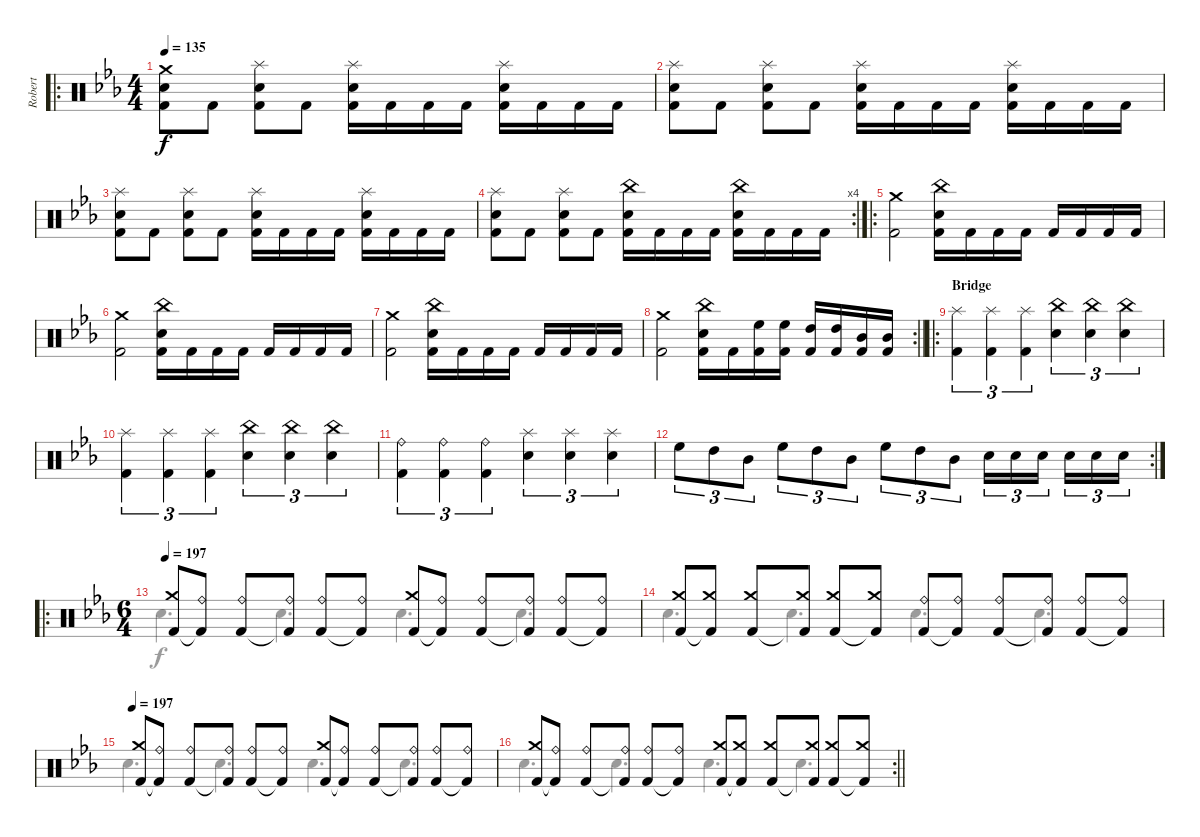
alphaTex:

\track ("Robert" "Robert") {instrument percussion}
\staff {score}
\articulation defaults
\voice
\ro
\ts (4 4)
\tempo 135
\clef neutral
\ks cminor
("Crash medium (hit)" "Snare (hit) 2" "Kick (hit) 2").8{dy f} "Kick (hit) 2".8 ("Splash (hit)" "Snare (hit) 2" "Kick (hit) 2").8 "Kick (hit) 2".8 ("Splash (hit)" "Snare (hit) 2" "Kick (hit) 2").16 "Kick (hit) 2".16 "Kick (hit) 2".16 "Kick (hit) 2".16 ("Splash (hit)" "Snare (hit) 2" "Kick (hit) 2").16 "Kick (hit) 2".16 "Kick (hit) 2".16 "Kick (hit) 2".16 |
("Splash (hit)" "Snare (hit) 2" "Kick (hit) 2").8 "Kick (hit) 2".8 ("Splash (hit)" "Snare (hit) 2" "Kick (hit) 2").8 "Kick (hit) 2".8 ("Splash (hit)" "Snare (hit) 2" "Kick (hit) 2").16 "Kick (hit) 2".16 "Kick (hit) 2".16 "Kick (hit) 2".16 ("Splash (hit)" "Snare (hit) 2" "Kick (hit) 2").16 "Kick (hit) 2".16 "Kick (hit) 2".16 "Kick (hit) 2".16 |
("Splash (hit)" "Snare (hit) 2" "Kick (hit) 2").8 "Kick (hit) 2".8 ("Splash (hit)" "Snare (hit) 2" "Kick (hit) 2").8 "Kick (hit) 2".8 ("Splash (hit)" "Snare (hit) 2" "Kick (hit) 2").16 "Kick (hit) 2".16 "Kick (hit) 2".16 "Kick (hit) 2".16 ("Splash (hit)" "Snare (hit) 2" "Kick (hit) 2").16 "Kick (hit) 2".16 "Kick (hit) 2".16 "Kick (hit) 2".16 |
\rc 4
("Splash (hit)" "Snare (hit) 2" "Kick (hit) 2").8 "Kick (hit) 2".8 ("Splash (hit)" "Snare (hit) 2" "Kick (hit) 2").8 "Kick (hit) 2".8 ("China (hit)" "Snare (hit) 2" "Kick (hit) 2").16 "Kick (hit) 2".16 "Kick (hit) 2".16 "Kick (hit) 2".16 ("China (hit)" "Snare (hit) 2" "Kick (hit) 2").16 "Kick (hit) 2".16 "Kick (hit) 2".16 "Kick (hit) 2".16 |
\ro
("Crash medium (hit)" "Kick (hit) 2").2 ("China (hit)" "Snare (hit) 2" "Kick (hit) 2").16 "Kick (hit) 2".16 "Kick (hit) 2".16 "Kick (hit) 2".16 "Kick (hit) 2".16 "Kick (hit) 2".16 "Kick (hit) 2".16 "Kick (hit) 2".16 |
("Crash medium (hit)" "Kick (hit) 2").2 ("China (hit)" "Snare (hit) 2" "Kick (hit) 2").16 "Kick (hit) 2".16 "Kick (hit) 2".16 "Kick (hit) 2".16 "Kick (hit) 2".16 "Kick (hit) 2".16 "Kick (hit) 2".16 "Kick (hit) 2".16 |
("Crash medium (hit)" "Kick (hit) 2").2 ("China (hit)" "Snare (hit) 2" "Kick (hit) 2").16 "Kick (hit) 2".16 "Kick (hit) 2".16 "Kick (hit) 2".16 "Kick (hit) 2".16 "Kick (hit) 2".16 "Kick (hit) 2".16 "Kick (hit) 2".16 |
\rc 2
\barLineRight lightlight
("Crash medium (hit)" "Kick (hit) 2").2 ("China (hit)" "Snare (hit) 2" "Kick (hit) 2").16 "Kick (hit) 2".16 ("High Floor Tom (hit)" "Kick (hit) 2").16 ("High Floor Tom (hit)" "Kick (hit) 2").16 ("High Tom (hit)" "Kick (hit) 2").16 ("High Tom (hit)" "Kick (hit) 2").16 ("Mid Tom (hit)" "Kick (hit) 2").16 ("Mid Tom (hit)" "Kick (hit) 2").16 |
\ro
\section ("" "Bridge")
("Splash (hit)" "Kick (hit) 2").4{tu (3 2)} ("Splash (hit)" "Kick (hit) 2").4{tu (3 2)} ("Splash (hit)" "Kick (hit) 2").4{tu (3 2)} ("China (hit)" "Snare (hit) 2").4{tu (3 2)} ("China (hit)" "Snare (hit) 2").4{tu (3 2)} ("China (hit)" "Snare (hit) 2").4{tu (3 2)} |
("Splash (hit)" "Kick (hit) 2").4{tu (3 2)} ("Splash (hit)" "Kick (hit) 2").4{tu (3 2)} ("Splash (hit)" "Kick (hit) 2").4{tu (3 2)} ("China (hit)" "Snare (hit) 2").4{tu (3 2)} ("China (hit)" "Snare (hit) 2").4{tu (3 2)} ("China (hit)" "Snare (hit) 2").4{tu (3 2)} |
("Ride (bell)" "Kick (hit) 2").4{tu (3 2)} ("Ride (bell)" "Kick (hit) 2").4{tu (3 2)} ("Ride (bell)" "Kick (hit) 2").4{tu (3 2)} ("Splash (hit)" "Snare (hit) 2").4{tu (3 2)} ("Splash (hit)" "Snare (hit) 2").4{tu (3 2)} ("Splash (hit)" "Snare (hit) 2").4{tu (3 2)} |
\rc 2 "High Floor Tom (hit)".8{tu (3 2)} "High Tom (hit)".8{tu (3 2)} "Mid Tom (hit)".8{tu (3 2)} "High Floor Tom (hit)".8{tu (3 2)} "High Tom (hit)".8{tu (3 2)} "Mid Tom (hit)".8{tu (3 2)} "High Floor Tom (hit)".8{tu (3 2)} "High Tom (hit)".8{tu (3 2)} "Mid Tom (hit)".8{tu (3 2)} "Snare (hit) 2".16{tu (3 2)} "Snare (hit) 2".16{tu (3 2)} "Snare (hit) 2".16{tu (3 2) beam splitsecondary} "Snare (hit) 2".16{tu (3 2)} "Snare (hit) 2".16{tu (3 2)} "Snare (hit) 2".16{tu (3 2)}
|
\ro
\ts (6 4)
\tempo 197
("Crash medium (hit)" "Kick (hit) 2").8 ("Ride (bell)" "Kick (hit) 2"{t}).8 ("Ride (bell)" "Kick (hit) 2").8 ("Ride (bell)" "Kick (hit) 2"{t}).8 ("Ride (bell)" "Kick (hit) 2").8 ("Ride (bell)" "Kick (hit) 2"{t}).8 ("Crash medium (hit)" "Kick (hit) 2").8 ("Ride (bell)" "Kick (hit) 2"{t}).8 ("Ride (bell)" "Kick (hit) 2").8 ("Ride (bell)" "Kick (hit) 2"{t}).8 ("Ride (bell)" "Kick (hit) 2").8 ("Ride (bell)" "Kick (hit) 2"{t}).8 |
("Crash medium (hit)" "Kick (hit) 2").8 ("Crash medium (hit)" "Kick (hit) 2"{t}).8 ("Crash medium (hit)" "Kick (hit) 2").8 ("Crash medium (hit)" "Kick (hit) 2"{t}).8 ("Crash medium (hit)" "Kick (hit) 2").8 ("Crash medium (hit)" "Kick (hit) 2"{t}).8 ("Ride (bell)" "Kick (hit) 2").8 ("Ride (bell)" "Kick (hit) 2"{t}).8 ("Ride (bell)" "Kick (hit) 2").8 ("Ride (bell)" "Kick (hit) 2"{t}).8 ("Ride (bell)" "Kick (hit) 2").8 ("Ride (bell)" "Kick (hit) 2"{t}).8 |
\tempo 197
("Crash medium (hit)" "Kick (hit) 2").8 ("Ride (bell)" "Kick (hit) 2"{t}).8 ("Ride (bell)" "Kick (hit) 2").8 ("Ride (bell)" "Kick (hit) 2"{t}).8 ("Ride (bell)" "Kick (hit) 2").8 ("Ride (bell)" "Kick (hit) 2"{t}).8 ("Crash medium (hit)" "Kick (hit) 2").8 ("Ride (bell)" "Kick (hit) 2"{t}).8 ("Ride (bell)" "Kick (hit) 2").8 ("Ride (bell)" "Kick (hit) 2"{t}).8 ("Ride (bell)" "Kick (hit) 2").8 ("Ride (bell)" "Kick (hit) 2"{t}).8 |
\rc 2
\barLineRight lightlight
("Crash medium (hit)" "Kick (hit) 2").8 ("Ride (bell)" "Kick (hit) 2"{t}).8 ("Ride (bell)" "Kick (hit) 2").8 ("Ride (bell)" "Kick (hit) 2"{t}).8 ("Ride (bell)" "Kick (hit) 2").8 ("Ride (bell)" "Kick (hit) 2"{t}).8 ("Crash medium (hit)" "Kick (hit) 2").8 ("Crash medium (hit)" "Kick (hit) 2"{t}).8 ("Crash medium (hit)" "Kick (hit) 2").8 ("Crash medium (hit)" "Kick (hit) 2"{t}).8 ("Crash medium (hit)" "Kick (hit) 2").8 ("Crash medium (hit)" "Kick (hit) 2"{t}).8
\voice
\clef neutral
\ottava regular
\simile none
\ks cminor
|
|
|
|
|
|
|
\barLineRight lightlight
|
|
|
|
|
"Snare (hit) 2".4{d} "Snare (hit) 2".4{d} "Snare (hit) 2".4{d} "Snare (hit) 2".4{d} |
"Snare (hit) 2".4{d} "Snare (hit) 2".4{d} "Snare (hit) 2".4{d} "Snare (hit) 2".4{d} |
"Snare (hit) 2".4{d} "Snare (hit) 2".4{d} "Snare (hit) 2".4{d} "Snare (hit) 2".4{d} |
\barLineRight lightlight "Snare (hit) 2".4{d} "Snare (hit) 2".4{d} "Snare (hit) 2".4{d} "Snare (hit) 2".4{d}
